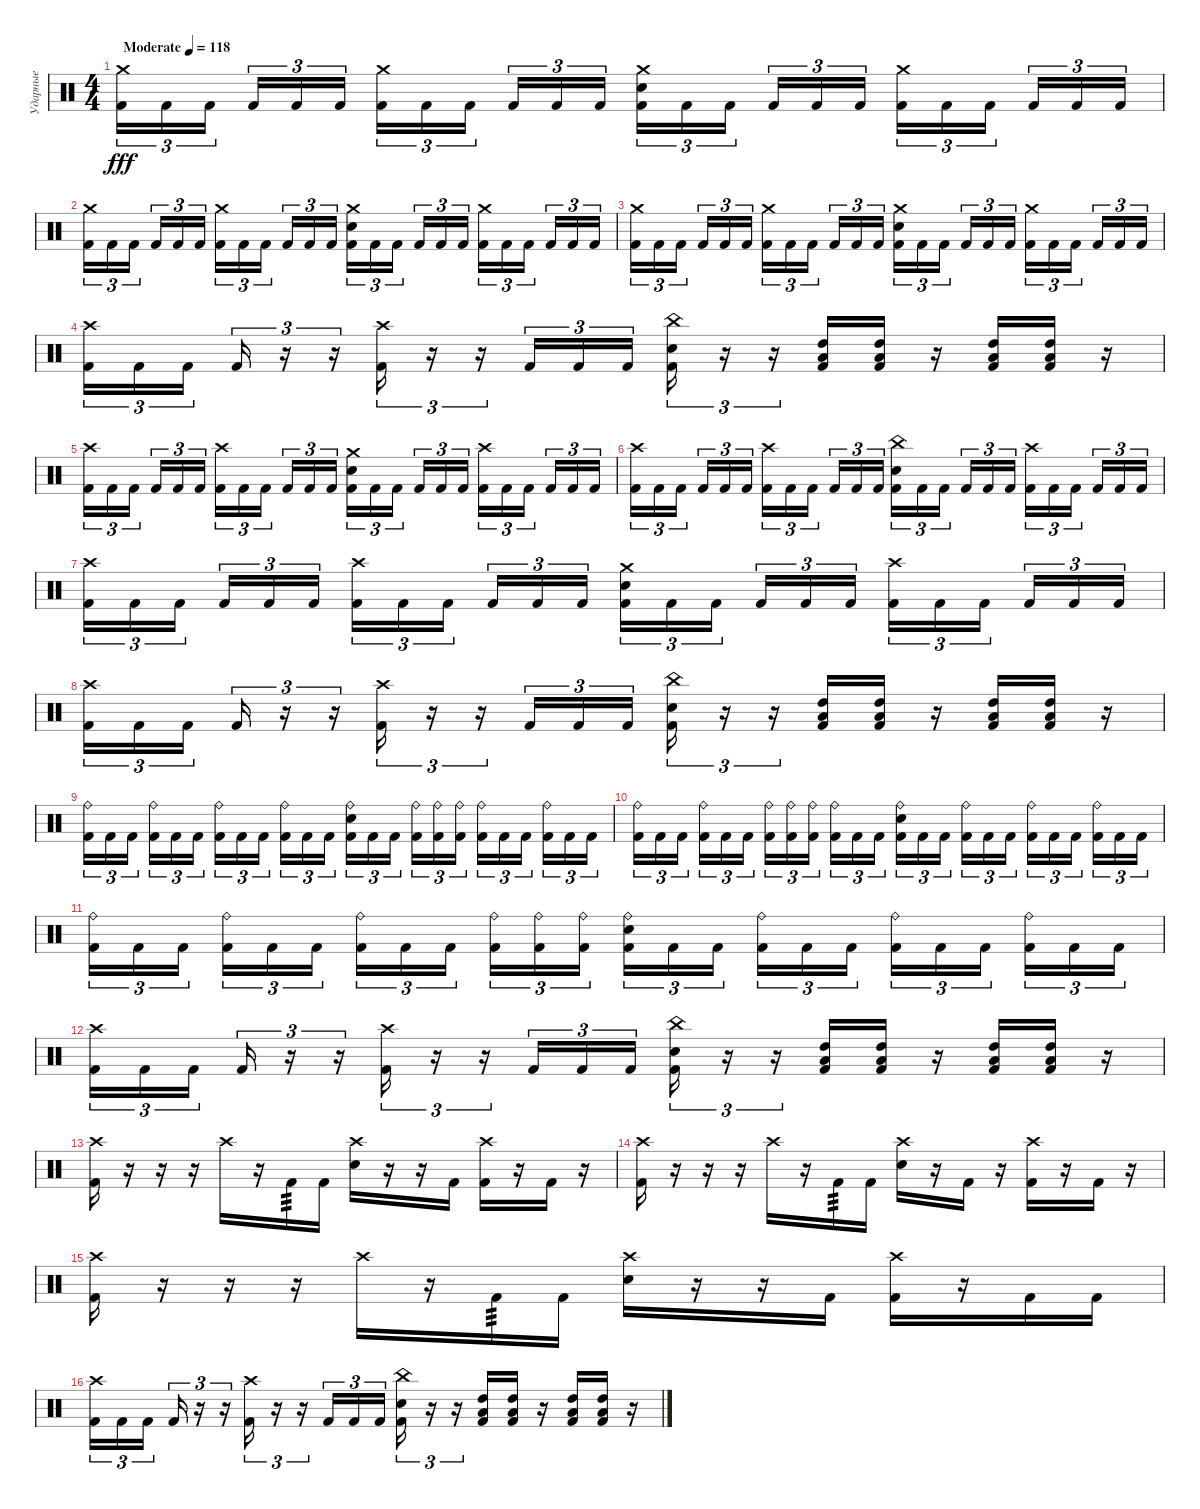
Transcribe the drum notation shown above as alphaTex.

\track ("Ударные" "Ударные") {instrument percussion}
\staff {score}
\articulation defaults
\ts (4 4)
\tempo (118 "Moderate")
\clef neutral
\ks c
("Crash medium (hit)" "Kick (hit) 2").16{tu (3 2) dy fff} "Kick (hit) 2".16{tu (3 2)} "Kick (hit) 2".16{tu (3 2) beam splitsecondary} "Kick (hit) 2".16{tu (3 2)} "Kick (hit) 2".16{tu (3 2)} "Kick (hit) 2".16{tu (3 2)} ("Crash medium (hit)" "Kick (hit) 2").16{tu (3 2)} "Kick (hit) 2".16{tu (3 2)} "Kick (hit) 2".16{tu (3 2) beam splitsecondary} "Kick (hit) 2".16{tu (3 2)} "Kick (hit) 2".16{tu (3 2)} "Kick (hit) 2".16{tu (3 2)} ("Crash medium (hit)" "Electric Snare (hit)" "Kick (hit) 2").16{tu (3 2)} "Kick (hit) 2".16{tu (3 2)} "Kick (hit) 2".16{tu (3 2) beam splitsecondary} "Kick (hit) 2".16{tu (3 2)} "Kick (hit) 2".16{tu (3 2)} "Kick (hit) 2".16{tu (3 2)} ("Crash medium (hit)" "Kick (hit) 2").16{tu (3 2)} "Kick (hit) 2".16{tu (3 2)} "Kick (hit) 2".16{tu (3 2) beam splitsecondary} "Kick (hit) 2".16{tu (3 2)} "Kick (hit) 2".16{tu (3 2)} "Kick (hit) 2".16{tu (3 2)} |
("Crash medium (hit)" "Kick (hit) 2").16{tu (3 2)} "Kick (hit) 2".16{tu (3 2)} "Kick (hit) 2".16{tu (3 2) beam splitsecondary} "Kick (hit) 2".16{tu (3 2)} "Kick (hit) 2".16{tu (3 2)} "Kick (hit) 2".16{tu (3 2)} ("Crash medium (hit)" "Kick (hit) 2").16{tu (3 2)} "Kick (hit) 2".16{tu (3 2)} "Kick (hit) 2".16{tu (3 2) beam splitsecondary} "Kick (hit) 2".16{tu (3 2)} "Kick (hit) 2".16{tu (3 2)} "Kick (hit) 2".16{tu (3 2)} ("Crash medium (hit)" "Electric Snare (hit)" "Kick (hit) 2").16{tu (3 2)} "Kick (hit) 2".16{tu (3 2)} "Kick (hit) 2".16{tu (3 2) beam splitsecondary} "Kick (hit) 2".16{tu (3 2)} "Kick (hit) 2".16{tu (3 2)} "Kick (hit) 2".16{tu (3 2)} ("Crash medium (hit)" "Kick (hit) 2").16{tu (3 2)} "Kick (hit) 2".16{tu (3 2)} "Kick (hit) 2".16{tu (3 2) beam splitsecondary} "Kick (hit) 2".16{tu (3 2)} "Kick (hit) 2".16{tu (3 2)} "Kick (hit) 2".16{tu (3 2)} |
("Crash medium (hit)" "Kick (hit) 2").16{tu (3 2)} "Kick (hit) 2".16{tu (3 2)} "Kick (hit) 2".16{tu (3 2) beam splitsecondary} "Kick (hit) 2".16{tu (3 2)} "Kick (hit) 2".16{tu (3 2)} "Kick (hit) 2".16{tu (3 2)} ("Crash medium (hit)" "Kick (hit) 2").16{tu (3 2)} "Kick (hit) 2".16{tu (3 2)} "Kick (hit) 2".16{tu (3 2) beam splitsecondary} "Kick (hit) 2".16{tu (3 2)} "Kick (hit) 2".16{tu (3 2)} "Kick (hit) 2".16{tu (3 2)} ("Crash medium (hit)" "Electric Snare (hit)" "Kick (hit) 2").16{tu (3 2)} "Kick (hit) 2".16{tu (3 2)} "Kick (hit) 2".16{tu (3 2) beam splitsecondary} "Kick (hit) 2".16{tu (3 2)} "Kick (hit) 2".16{tu (3 2)} "Kick (hit) 2".16{tu (3 2)} ("Crash medium (hit)" "Kick (hit) 2").16{tu (3 2)} "Kick (hit) 2".16{tu (3 2)} "Kick (hit) 2".16{tu (3 2) beam splitsecondary} "Kick (hit) 2".16{tu (3 2)} "Kick (hit) 2".16{tu (3 2)} "Kick (hit) 2".16{tu (3 2)} |
("Crash high (hit)" "Kick (hit) 2").16{tu (3 2)} "Kick (hit) 2".16{tu (3 2)} "Kick (hit) 2".16{tu (3 2) beam splitsecondary} "Kick (hit) 2".16{tu (3 2)} r.16{tu (3 2)} r.16{tu (3 2)} ("Crash high (hit)" "Kick (hit) 2").16{tu (3 2)} r.16{tu (3 2)} r.16{tu (3 2)} "Kick (hit) 2".16{tu (3 2)} "Kick (hit) 2".16{tu (3 2)} "Kick (hit) 2".16{tu (3 2)} ("China (hit)" "Electric Snare (hit)" "Kick (hit) 2").16{tu (3 2)} r.16{tu (3 2)} r.16{tu (3 2)} ("High Tom (hit)" "Low Tom (hit)" "Kick (hit) 2").16 ("High Tom (hit)" "Low Tom (hit)" "Kick (hit) 2").16 r.16 ("High Tom (hit)" "Low Tom (hit)" "Kick (hit) 2").16 ("High Tom (hit)" "Low Tom (hit)" "Kick (hit) 2").16 r.16 |
("Crash high (hit)" "Kick (hit) 2").16{tu (3 2)} "Kick (hit) 2".16{tu (3 2)} "Kick (hit) 2".16{tu (3 2) beam splitsecondary} "Kick (hit) 2".16{tu (3 2)} "Kick (hit) 2".16{tu (3 2)} "Kick (hit) 2".16{tu (3 2)} ("Crash high (hit)" "Kick (hit) 2").16{tu (3 2)} "Kick (hit) 2".16{tu (3 2)} "Kick (hit) 2".16{tu (3 2) beam splitsecondary} "Kick (hit) 2".16{tu (3 2)} "Kick (hit) 2".16{tu (3 2)} "Kick (hit) 2".16{tu (3 2)} ("Crash medium (hit)" "Electric Snare (hit)" "Kick (hit) 2").16{tu (3 2)} "Kick (hit) 2".16{tu (3 2)} "Kick (hit) 2".16{tu (3 2) beam splitsecondary} "Kick (hit) 2".16{tu (3 2)} "Kick (hit) 2".16{tu (3 2)} "Kick (hit) 2".16{tu (3 2)} ("Crash high (hit)" "Kick (hit) 2").16{tu (3 2)} "Kick (hit) 2".16{tu (3 2)} "Kick (hit) 2".16{tu (3 2) beam splitsecondary} "Kick (hit) 2".16{tu (3 2)} "Kick (hit) 2".16{tu (3 2)} "Kick (hit) 2".16{tu (3 2)} |
("Crash high (hit)" "Kick (hit) 2").16{tu (3 2)} "Kick (hit) 2".16{tu (3 2)} "Kick (hit) 2".16{tu (3 2) beam splitsecondary} "Kick (hit) 2".16{tu (3 2)} "Kick (hit) 2".16{tu (3 2)} "Kick (hit) 2".16{tu (3 2)} ("Crash high (hit)" "Kick (hit) 2").16{tu (3 2)} "Kick (hit) 2".16{tu (3 2)} "Kick (hit) 2".16{tu (3 2) beam splitsecondary} "Kick (hit) 2".16{tu (3 2)} "Kick (hit) 2".16{tu (3 2)} "Kick (hit) 2".16{tu (3 2)} ("China (hit)" "Electric Snare (hit)" "Kick (hit) 2").16{tu (3 2)} "Kick (hit) 2".16{tu (3 2)} "Kick (hit) 2".16{tu (3 2) beam splitsecondary} "Kick (hit) 2".16{tu (3 2)} "Kick (hit) 2".16{tu (3 2)} "Kick (hit) 2".16{tu (3 2)} ("Crash high (hit)" "Kick (hit) 2").16{tu (3 2)} "Kick (hit) 2".16{tu (3 2)} "Kick (hit) 2".16{tu (3 2) beam splitsecondary} "Kick (hit) 2".16{tu (3 2)} "Kick (hit) 2".16{tu (3 2)} "Kick (hit) 2".16{tu (3 2)} |
("Crash high (hit)" "Kick (hit) 2").16{tu (3 2)} "Kick (hit) 2".16{tu (3 2)} "Kick (hit) 2".16{tu (3 2) beam splitsecondary} "Kick (hit) 2".16{tu (3 2)} "Kick (hit) 2".16{tu (3 2)} "Kick (hit) 2".16{tu (3 2)} ("Crash high (hit)" "Kick (hit) 2").16{tu (3 2)} "Kick (hit) 2".16{tu (3 2)} "Kick (hit) 2".16{tu (3 2) beam splitsecondary} "Kick (hit) 2".16{tu (3 2)} "Kick (hit) 2".16{tu (3 2)} "Kick (hit) 2".16{tu (3 2)} ("Crash medium (hit)" "Electric Snare (hit)" "Kick (hit) 2").16{tu (3 2)} "Kick (hit) 2".16{tu (3 2)} "Kick (hit) 2".16{tu (3 2) beam splitsecondary} "Kick (hit) 2".16{tu (3 2)} "Kick (hit) 2".16{tu (3 2)} "Kick (hit) 2".16{tu (3 2)} ("Crash high (hit)" "Kick (hit) 2").16{tu (3 2)} "Kick (hit) 2".16{tu (3 2)} "Kick (hit) 2".16{tu (3 2) beam splitsecondary} "Kick (hit) 2".16{tu (3 2)} "Kick (hit) 2".16{tu (3 2)} "Kick (hit) 2".16{tu (3 2)} |
("Crash high (hit)" "Kick (hit) 2").16{tu (3 2)} "Kick (hit) 2".16{tu (3 2)} "Kick (hit) 2".16{tu (3 2) beam splitsecondary} "Kick (hit) 2".16{tu (3 2)} r.16{tu (3 2)} r.16{tu (3 2)} ("Crash high (hit)" "Kick (hit) 2").16{tu (3 2)} r.16{tu (3 2)} r.16{tu (3 2)} "Kick (hit) 2".16{tu (3 2)} "Kick (hit) 2".16{tu (3 2)} "Kick (hit) 2".16{tu (3 2)} ("China (hit)" "Electric Snare (hit)" "Kick (hit) 2").16{tu (3 2)} r.16{tu (3 2)} r.16{tu (3 2)} ("High Tom (hit)" "Low Tom (hit)" "Kick (hit) 2").16 ("High Tom (hit)" "Low Tom (hit)" "Kick (hit) 2").16 r.16 ("High Tom (hit)" "Low Tom (hit)" "Kick (hit) 2").16 ("High Tom (hit)" "Low Tom (hit)" "Kick (hit) 2").16 r.16 |
("Ride (bell)" "Kick (hit) 2").16{tu (3 2)} "Kick (hit) 2".16{tu (3 2)} "Kick (hit) 2".16{tu (3 2) beam splitsecondary} ("Ride (bell)" "Kick (hit) 2").16{tu (3 2)} "Kick (hit) 2".16{tu (3 2)} "Kick (hit) 2".16{tu (3 2)} ("Ride (bell)" "Kick (hit) 2").16{tu (3 2)} "Kick (hit) 2".16{tu (3 2)} "Kick (hit) 2".16{tu (3 2) beam splitsecondary} ("Ride (bell)" "Kick (hit) 2").16{tu (3 2)} "Kick (hit) 2".16{tu (3 2)} "Kick (hit) 2".16{tu (3 2)} ("Ride (bell)" "Electric Snare (hit)" "Kick (hit) 2").16{tu (3 2)} "Kick (hit) 2".16{tu (3 2)} "Kick (hit) 2".16{tu (3 2) beam splitsecondary} ("Ride (bell)" "Kick (hit) 2").16{tu (3 2)} ("Ride (bell)" "Kick (hit) 2").16{tu (3 2)} ("Ride (bell)" "Kick (hit) 2").16{tu (3 2)} ("Ride (bell)" "Kick (hit) 2").16{tu (3 2)} "Kick (hit) 2".16{tu (3 2)} "Kick (hit) 2".16{tu (3 2) beam splitsecondary} ("Ride (bell)" "Kick (hit) 2").16{tu (3 2)} "Kick (hit) 2".16{tu (3 2)} "Kick (hit) 2".16{tu (3 2)} |
("Ride (bell)" "Kick (hit) 2").16{tu (3 2)} "Kick (hit) 2".16{tu (3 2)} "Kick (hit) 2".16{tu (3 2) beam splitsecondary} ("Ride (bell)" "Kick (hit) 2").16{tu (3 2)} "Kick (hit) 2".16{tu (3 2)} "Kick (hit) 2".16{tu (3 2)} ("Ride (bell)" "Kick (hit) 2").16{tu (3 2)} ("Ride (bell)" "Kick (hit) 2").16{tu (3 2)} ("Ride (bell)" "Kick (hit) 2").16{tu (3 2) beam splitsecondary} ("Ride (bell)" "Kick (hit) 2").16{tu (3 2)} "Kick (hit) 2".16{tu (3 2)} "Kick (hit) 2".16{tu (3 2)} ("Ride (bell)" "Electric Snare (hit)" "Kick (hit) 2").16{tu (3 2)} "Kick (hit) 2".16{tu (3 2)} "Kick (hit) 2".16{tu (3 2) beam splitsecondary} ("Ride (bell)" "Kick (hit) 2").16{tu (3 2)} "Kick (hit) 2".16{tu (3 2)} "Kick (hit) 2".16{tu (3 2)} ("Ride (bell)" "Kick (hit) 2").16{tu (3 2)} "Kick (hit) 2".16{tu (3 2)} "Kick (hit) 2".16{tu (3 2) beam splitsecondary} ("Ride (bell)" "Kick (hit) 2").16{tu (3 2)} "Kick (hit) 2".16{tu (3 2)} "Kick (hit) 2".16{tu (3 2)} |
("Ride (bell)" "Kick (hit) 2").16{tu (3 2)} "Kick (hit) 2".16{tu (3 2)} "Kick (hit) 2".16{tu (3 2) beam splitsecondary} ("Ride (bell)" "Kick (hit) 2").16{tu (3 2)} "Kick (hit) 2".16{tu (3 2)} "Kick (hit) 2".16{tu (3 2)} ("Ride (bell)" "Kick (hit) 2").16{tu (3 2)} "Kick (hit) 2".16{tu (3 2)} "Kick (hit) 2".16{tu (3 2) beam splitsecondary} ("Ride (bell)" "Kick (hit) 2").16{tu (3 2)} ("Ride (bell)" "Kick (hit) 2").16{tu (3 2)} ("Ride (bell)" "Kick (hit) 2").16{tu (3 2)} ("Ride (bell)" "Electric Snare (hit)" "Kick (hit) 2").16{tu (3 2)} "Kick (hit) 2".16{tu (3 2)} "Kick (hit) 2".16{tu (3 2) beam splitsecondary} ("Ride (bell)" "Kick (hit) 2").16{tu (3 2)} "Kick (hit) 2".16{tu (3 2)} "Kick (hit) 2".16{tu (3 2)} ("Ride (bell)" "Kick (hit) 2").16{tu (3 2)} "Kick (hit) 2".16{tu (3 2)} "Kick (hit) 2".16{tu (3 2) beam splitsecondary} ("Ride (bell)" "Kick (hit) 2").16{tu (3 2)} "Kick (hit) 2".16{tu (3 2)} "Kick (hit) 2".16{tu (3 2)} |
("Crash high (hit)" "Kick (hit) 2").16{tu (3 2)} "Kick (hit) 2".16{tu (3 2)} "Kick (hit) 2".16{tu (3 2) beam splitsecondary} "Kick (hit) 2".16{tu (3 2)} r.16{tu (3 2)} r.16{tu (3 2)} ("Crash high (hit)" "Kick (hit) 2").16{tu (3 2)} r.16{tu (3 2)} r.16{tu (3 2)} "Kick (hit) 2".16{tu (3 2)} "Kick (hit) 2".16{tu (3 2)} "Kick (hit) 2".16{tu (3 2)} ("China (hit)" "Electric Snare (hit)" "Kick (hit) 2").16{tu (3 2)} r.16{tu (3 2)} r.16{tu (3 2)} ("High Tom (hit)" "Low Tom (hit)" "Kick (hit) 2").16 ("High Tom (hit)" "Low Tom (hit)" "Kick (hit) 2").16 r.16 ("High Tom (hit)" "Low Tom (hit)" "Kick (hit) 2").16 ("High Tom (hit)" "Low Tom (hit)" "Kick (hit) 2").16 r.16 |
("Crash high (hit)" "Kick (hit) 2").16 r.16 r.16 r.16 "Crash high (hit)".16 r.16 "Kick (hit) 2".16{tp 3} "Kick (hit) 2".16 ("Crash high (hit)" "Electric Snare (hit)").16 r.16 r.16 "Kick (hit) 2".16 ("Crash high (hit)" "Kick (hit) 2").16 r.16 "Kick (hit) 2".16 r.16 |
("Crash high (hit)" "Kick (hit) 2").16 r.16 r.16 r.16 "Crash high (hit)".16 r.16 "Kick (hit) 2".16{tp 3} "Kick (hit) 2".16 ("Crash high (hit)" "Electric Snare (hit)").16 r.16 "Kick (hit) 2".16 r.16 ("Crash high (hit)" "Kick (hit) 2").16 r.16 "Kick (hit) 2".16 r.16 |
("Crash high (hit)" "Kick (hit) 2").16 r.16 r.16 r.16 "Crash high (hit)".16 r.16 "Kick (hit) 2".16{tp 3} "Kick (hit) 2".16 ("Crash high (hit)" "Electric Snare (hit)").16 r.16 r.16 "Kick (hit) 2".16 ("Crash high (hit)" "Kick (hit) 2").16 r.16 "Kick (hit) 2".16 "Kick (hit) 2".16 |
("Crash high (hit)" "Kick (hit) 2").16{tu (3 2)} "Kick (hit) 2".16{tu (3 2)} "Kick (hit) 2".16{tu (3 2) beam splitsecondary} "Kick (hit) 2".16{tu (3 2)} r.16{tu (3 2)} r.16{tu (3 2)} ("Crash high (hit)" "Kick (hit) 2").16{tu (3 2)} r.16{tu (3 2)} r.16{tu (3 2)} "Kick (hit) 2".16{tu (3 2)} "Kick (hit) 2".16{tu (3 2)} "Kick (hit) 2".16{tu (3 2)} ("China (hit)" "Electric Snare (hit)" "Kick (hit) 2").16{tu (3 2)} r.16{tu (3 2)} r.16{tu (3 2)} ("High Tom (hit)" "Low Tom (hit)" "Kick (hit) 2").16 ("High Tom (hit)" "Low Tom (hit)" "Kick (hit) 2").16 r.16 ("High Tom (hit)" "Low Tom (hit)" "Kick (hit) 2").16 ("High Tom (hit)" "Low Tom (hit)" "Kick (hit) 2").16 r.16
